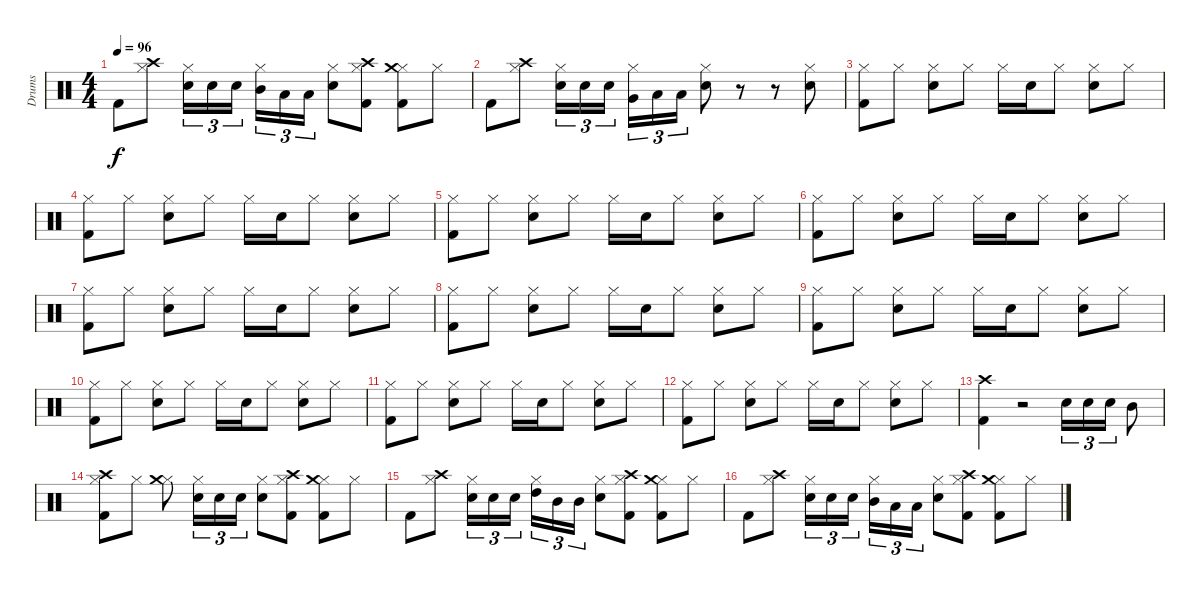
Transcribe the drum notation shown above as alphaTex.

\track ("Drums" "Drums") {instrument percussion}
\staff {score}
\articulation defaults
\ts (4 4)
\tempo 96
\clef neutral
\ks c "Kick (hit) 2".8{dy f}
("Hi-Hat (closed)" "Crash high (hit)").8 ("Snare (hit) 2" "Hi-Hat (closed)").16{tu (3 2)} "Snare (hit) 2".16{tu (3 2)} "Snare (hit) 2".16{tu (3 2)} ("Hi-Hat (closed)" "Mid Tom (hit)").16{tu (3 2)} "Low Tom (hit)".16{tu (3 2)} "Low Tom (hit)".16{tu (3 2)} ("Snare (hit) 2" "Hi-Hat (closed)").8 ("Kick (hit) 2" "Hi-Hat (closed)" "Crash high (hit)").8 ("Kick (hit) 2" "Hi-Hat (closed)" "Crash medium (hit)").8 "Hi-Hat (closed)".8 |
"Kick (hit) 2".8 ("Hi-Hat (closed)" "Crash high (hit)").8 ("Snare (hit) 2" "Hi-Hat (closed)").16{tu (3 2)} "Snare (hit) 2".16{tu (3 2)} "Snare (hit) 2".16{tu (3 2)} ("Hi-Hat (closed)" "Very Low Tom (hit)").16{tu (3 2)} "Low Floor Tom (hit)".16{tu (3 2)} "Low Floor Tom (hit)".16{tu (3 2)} ("Snare (hit) 2" "Hi-Hat (closed)").8 r.8 r.8 ("Snare (hit) 2" "Hi-Hat (closed)").8 |
("Kick (hit) 2" "Hi-Hat (closed)").8 "Hi-Hat (closed)".8 ("Snare (hit) 2" "Hi-Hat (closed)").8 "Hi-Hat (closed)".8 "Hi-Hat (closed)".16 "Snare (hit) 2".16 "Hi-Hat (closed)".8 ("Snare (hit) 2" "Hi-Hat (closed)").8 "Hi-Hat (closed)".8 |
("Kick (hit) 2" "Hi-Hat (closed)").8 "Hi-Hat (closed)".8 ("Snare (hit) 2" "Hi-Hat (closed)").8 "Hi-Hat (closed)".8 "Hi-Hat (closed)".16 "Snare (hit) 2".16 "Hi-Hat (closed)".8 ("Snare (hit) 2" "Hi-Hat (closed)").8 "Hi-Hat (closed)".8 |
("Kick (hit) 2" "Hi-Hat (closed)").8 "Hi-Hat (closed)".8 ("Snare (hit) 2" "Hi-Hat (closed)").8 "Hi-Hat (closed)".8 "Hi-Hat (closed)".16 "Snare (hit) 2".16 "Hi-Hat (closed)".8 ("Snare (hit) 2" "Hi-Hat (closed)").8 "Hi-Hat (closed)".8 |
("Kick (hit) 2" "Hi-Hat (closed)").8 "Hi-Hat (closed)".8 ("Snare (hit) 2" "Hi-Hat (closed)").8 "Hi-Hat (closed)".8 "Hi-Hat (closed)".16 "Snare (hit) 2".16 "Hi-Hat (closed)".8 ("Snare (hit) 2" "Hi-Hat (closed)").8 "Hi-Hat (closed)".8 |
("Kick (hit) 2" "Hi-Hat (closed)").8 "Hi-Hat (closed)".8 ("Snare (hit) 2" "Hi-Hat (closed)").8 "Hi-Hat (closed)".8 "Hi-Hat (closed)".16 "Snare (hit) 2".16 "Hi-Hat (closed)".8 ("Snare (hit) 2" "Hi-Hat (closed)").8 "Hi-Hat (closed)".8 |
("Kick (hit) 2" "Hi-Hat (closed)").8 "Hi-Hat (closed)".8 ("Snare (hit) 2" "Hi-Hat (closed)").8 "Hi-Hat (closed)".8 "Hi-Hat (closed)".16 "Snare (hit) 2".16 "Hi-Hat (closed)".8 ("Snare (hit) 2" "Hi-Hat (closed)").8 "Hi-Hat (closed)".8 |
("Kick (hit) 2" "Hi-Hat (closed)").8 "Hi-Hat (closed)".8 ("Snare (hit) 2" "Hi-Hat (closed)").8 "Hi-Hat (closed)".8 "Hi-Hat (closed)".16 "Snare (hit) 2".16 "Hi-Hat (closed)".8 ("Snare (hit) 2" "Hi-Hat (closed)").8 "Hi-Hat (closed)".8 |
("Kick (hit) 2" "Hi-Hat (closed)").8 "Hi-Hat (closed)".8 ("Snare (hit) 2" "Hi-Hat (closed)").8 "Hi-Hat (closed)".8 "Hi-Hat (closed)".16 "Snare (hit) 2".16 "Hi-Hat (closed)".8 ("Snare (hit) 2" "Hi-Hat (closed)").8 "Hi-Hat (closed)".8 |
("Kick (hit) 2" "Hi-Hat (closed)").8 "Hi-Hat (closed)".8 ("Snare (hit) 2" "Hi-Hat (closed)").8 "Hi-Hat (closed)".8 "Hi-Hat (closed)".16 "Snare (hit) 2".16 "Hi-Hat (closed)".8 ("Snare (hit) 2" "Hi-Hat (closed)").8 "Hi-Hat (closed)".8 |
("Kick (hit) 2" "Hi-Hat (closed)").8 "Hi-Hat (closed)".8 ("Snare (hit) 2" "Hi-Hat (closed)").8 "Hi-Hat (closed)".8 "Hi-Hat (closed)".16 "Snare (hit) 2".16 "Hi-Hat (closed)".8 ("Snare (hit) 2" "Hi-Hat (closed)").8 "Hi-Hat (closed)".8 |
("Kick (hit) 2" "Crash high (hit)").4 r.2 "Snare (hit) 2".16{tu (3 2)} "Snare (hit) 2".16{tu (3 2)} "Snare (hit) 2".16{tu (3 2)} "Mid Tom (hit)".8 |
("Kick (hit) 2" "Hi-Hat (closed)" "Crash high (hit)").8 "Hi-Hat (closed)".8 ("Hi-Hat (closed)" "Crash medium (hit)").8 ("Snare (hit) 2" "Hi-Hat (closed)").16{tu (3 2)} "Snare (hit) 2".16{tu (3 2)} "Snare (hit) 2".16{tu (3 2)} ("Snare (hit) 2" "Hi-Hat (closed)").8 ("Kick (hit) 2" "Hi-Hat (closed)" "Crash high (hit)").8 ("Kick (hit) 2" "Hi-Hat (closed)" "Crash medium (hit)").8 "Hi-Hat (closed)".8 |
"Kick (hit) 2".8 ("Hi-Hat (closed)" "Crash high (hit)").8 ("Snare (hit) 2" "Hi-Hat (closed)").16{tu (3 2)} "Snare (hit) 2".16{tu (3 2)} "Snare (hit) 2".16{tu (3 2)} ("Hi-Hat (closed)" "High Tom (hit)").16{tu (3 2)} "Mid Tom (hit)".16{tu (3 2)} "Mid Tom (hit)".16{tu (3 2)} ("Snare (hit) 2" "Hi-Hat (closed)").8 ("Kick (hit) 2" "Hi-Hat (closed)" "Crash high (hit)").8 ("Kick (hit) 2" "Hi-Hat (closed)" "Crash medium (hit)").8 "Hi-Hat (closed)".8 |
"Kick (hit) 2".8 ("Hi-Hat (closed)" "Crash high (hit)").8 ("Snare (hit) 2" "Hi-Hat (closed)").16{tu (3 2)} "Snare (hit) 2".16{tu (3 2)} "Snare (hit) 2".16{tu (3 2)} ("Hi-Hat (closed)" "Mid Tom (hit)").16{tu (3 2)} "Low Tom (hit)".16{tu (3 2)} "Low Tom (hit)".16{tu (3 2)} ("Snare (hit) 2" "Hi-Hat (closed)").8 ("Kick (hit) 2" "Hi-Hat (closed)" "Crash high (hit)").8 ("Kick (hit) 2" "Hi-Hat (closed)" "Crash medium (hit)").8 "Hi-Hat (closed)".8
